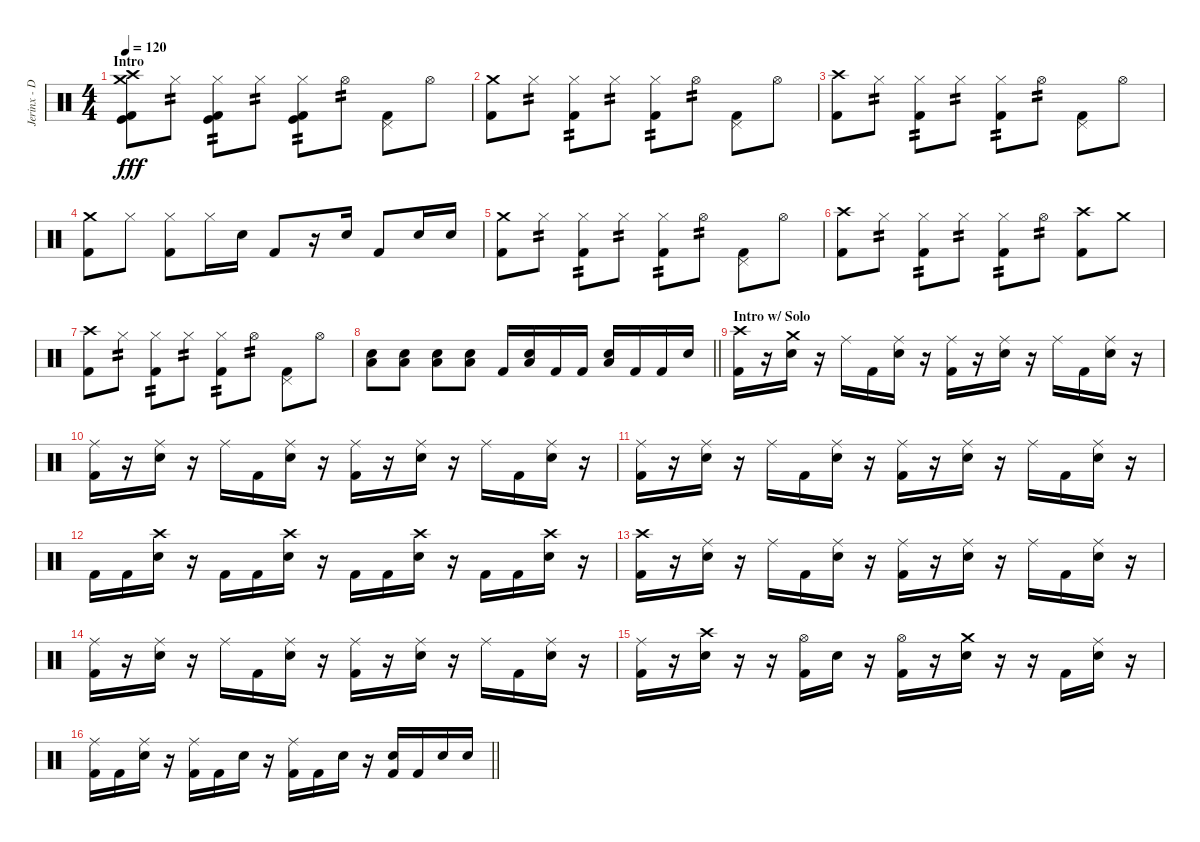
\track ("Jerinx - Drum" "Jerinx - D") {instrument percussion}
\staff {score}
\articulation defaults
\ts (4 4)
\section ("" "Intro")
\tempo 120
\clef neutral
\ks c
("Kick (hit) 2" "Kick (hit)" "Crash high (hit)" "Crash medium (hit)").8{dy fff} "Hi-Hat (closed)".8{tp 2} ("Hi-Hat (closed)" "Kick (hit) 2" "Kick (hit)").8{tp 2} "Hi-Hat (closed)".8{tp 2} ("Hi-Hat (closed)" "Kick (hit) 2" "Kick (hit)").8{tp 2} "Hi-Hat (open)".8{tp 2} ("Pedal Hi-Hat (hit)" "Kick (hit) 2").8 "Hi-Hat (open)".8 |
("Kick (hit) 2" "Crash medium (hit)").8 "Hi-Hat (closed)".8{tp 2} ("Hi-Hat (closed)" "Kick (hit) 2").8{tp 2} "Hi-Hat (closed)".8{tp 2} ("Hi-Hat (closed)" "Kick (hit) 2").8{tp 2} "Hi-Hat (open)".8{tp 2} ("Pedal Hi-Hat (hit)" "Kick (hit) 2").8 "Hi-Hat (open)".8 |
("Kick (hit) 2" "Crash high (hit)").8 "Hi-Hat (closed)".8{tp 2} ("Hi-Hat (closed)" "Kick (hit) 2").8{tp 2} "Hi-Hat (closed)".8{tp 2} ("Hi-Hat (closed)" "Kick (hit) 2").8{tp 2} "Hi-Hat (open)".8{tp 2} ("Pedal Hi-Hat (hit)" "Kick (hit) 2").8 "Hi-Hat (open)".8 |
("Kick (hit) 2" "Crash medium (hit)").8 "Hi-Hat (closed)".8 ("Hi-Hat (closed)" "Kick (hit) 2").8 "Hi-Hat (closed)".16 "Snare (hit) 2".16 "Kick (hit) 2".8 r.16 "Snare (hit) 2".16 "Kick (hit) 2".8 "Snare (hit) 2".16 "Snare (hit) 2".16 |
("Kick (hit) 2" "Crash medium (hit)").8 "Hi-Hat (closed)".8{tp 2} ("Hi-Hat (closed)" "Kick (hit) 2").8{tp 2} "Hi-Hat (closed)".8{tp 2} ("Hi-Hat (closed)" "Kick (hit) 2").8{tp 2} "Hi-Hat (open)".8{tp 2} ("Pedal Hi-Hat (hit)" "Kick (hit) 2").8 "Hi-Hat (open)".8 |
("Kick (hit) 2" "Crash high (hit)").8 "Hi-Hat (closed)".8{tp 2} ("Hi-Hat (closed)" "Kick (hit) 2").8{tp 2} "Hi-Hat (closed)".8{tp 2} ("Hi-Hat (closed)" "Kick (hit) 2").8{tp 2} "Hi-Hat (open)".8{tp 2} ("Kick (hit) 2" "Crash high (hit)").8 "Crash medium (hit)".8 |
("Kick (hit) 2" "Crash high (hit)").8 "Hi-Hat (closed)".8{tp 2} ("Hi-Hat (closed)" "Kick (hit) 2").8{tp 2} "Hi-Hat (closed)".8{tp 2} ("Hi-Hat (closed)" "Kick (hit) 2").8{tp 2} "Hi-Hat (open)".8{tp 2} ("Pedal Hi-Hat (hit)" "Kick (hit) 2").8 "Hi-Hat (open)".8 |
\barLineRight lightlight
("Snare (hit) 2" "Low Tom (hit)").8 ("Snare (hit) 2" "Low Tom (hit)").8 ("Snare (hit) 2" "Low Tom (hit)").8 ("Snare (hit) 2" "Low Tom (hit)").8 "Kick (hit) 2".16 ("Snare (hit) 2" "Low Tom (hit)").16 "Kick (hit) 2".16 "Kick (hit) 2".16 ("Snare (hit) 2" "Low Tom (hit)").16 "Kick (hit) 2".16 "Kick (hit) 2".16 "Snare (hit) 2".16 |
\section ("" "Intro w/ Solo")
("Kick (hit) 2" "Crash high (hit)").16 r.16 ("Snare (hit) 2" "Crash medium (hit)").16 r.16 "Ride (middle)".16 "Kick (hit) 2".16 ("Snare (hit) 2" "Ride (middle)").16 r.16 ("Kick (hit) 2" "Ride (middle)").16 r.16 ("Snare (hit) 2" "Ride (middle)").16 r.16 "Ride (middle)".16 "Kick (hit) 2".16 ("Snare (hit) 2" "Ride (middle)").16 r.16 |
("Kick (hit) 2" "Ride (middle)").16 r.16 ("Snare (hit) 2" "Ride (middle)").16 r.16 "Ride (middle)".16 "Kick (hit) 2".16 ("Snare (hit) 2" "Ride (middle)").16 r.16 ("Kick (hit) 2" "Ride (middle)").16 r.16 ("Snare (hit) 2" "Ride (middle)").16 r.16 "Ride (middle)".16 "Kick (hit) 2".16 ("Snare (hit) 2" "Ride (middle)").16 r.16 |
("Kick (hit) 2" "Ride (middle)").16 r.16 ("Snare (hit) 2" "Ride (middle)").16 r.16 "Ride (middle)".16 "Kick (hit) 2".16 ("Snare (hit) 2" "Ride (middle)").16 r.16 ("Kick (hit) 2" "Ride (middle)").16 r.16 ("Snare (hit) 2" "Ride (middle)").16 r.16 "Ride (middle)".16 "Kick (hit) 2".16 ("Snare (hit) 2" "Ride (middle)").16 r.16 |
"Kick (hit) 2".16 "Kick (hit) 2".16 ("Snare (hit) 2" "Crash high (hit)").16 r.16 "Kick (hit) 2".16 "Kick (hit) 2".16 ("Snare (hit) 2" "Crash high (hit)").16 r.16 "Kick (hit) 2".16 "Kick (hit) 2".16 ("Snare (hit) 2" "Crash high (hit)").16 r.16 "Kick (hit) 2".16 "Kick (hit) 2".16 ("Snare (hit) 2" "Crash high (hit)").16 r.16 |
("Kick (hit) 2" "Crash high (hit)").16 r.16 ("Snare (hit) 2" "Ride (middle)").16 r.16 "Ride (middle)".16 "Kick (hit) 2".16 ("Snare (hit) 2" "Ride (middle)").16 r.16 ("Kick (hit) 2" "Ride (middle)").16 r.16 ("Snare (hit) 2" "Ride (middle)").16 r.16 "Ride (middle)".16 "Kick (hit) 2".16 ("Snare (hit) 2" "Ride (middle)").16 r.16 |
("Kick (hit) 2" "Ride (middle)").16 r.16 ("Snare (hit) 2" "Ride (middle)").16 r.16 "Ride (middle)".16 "Kick (hit) 2".16 ("Snare (hit) 2" "Ride (middle)").16 r.16 ("Kick (hit) 2" "Ride (middle)").16 r.16 ("Snare (hit) 2" "Ride (middle)").16 r.16 "Ride (middle)".16 "Kick (hit) 2".16 ("Snare (hit) 2" "Ride (middle)").16 r.16 |
("Kick (hit) 2" "Ride (middle)").16 r.16 ("Snare (hit) 2" "Crash high (hit)").16 r.16 r.16 ("Hi-Hat (open)" "Kick (hit) 2").16 "Snare (hit) 2".16 r.16 ("Hi-Hat (open)" "Kick (hit) 2").16 r.16 ("Snare (hit) 2" "Crash medium (hit)").16 r.16 r.16 "Kick (hit) 2".16 ("Snare (hit) 2" "Ride (middle)").16 r.16 |
\barLineRight lightlight
("Kick (hit) 2" "Ride (middle)").16 "Kick (hit) 2".16 ("Snare (hit) 2" "Ride (middle)").16 r.16 ("Kick (hit) 2" "Ride (middle)").16 "Kick (hit) 2".16 "Snare (hit) 2".16 r.16 ("Kick (hit) 2" "Ride (middle)").16 "Kick (hit) 2".16 "Snare (hit) 2".16 r.16 ("Snare (hit) 2" "Kick (hit) 2").16 "Kick (hit) 2".16 "Snare (hit) 2".16 "Snare (hit) 2".16
